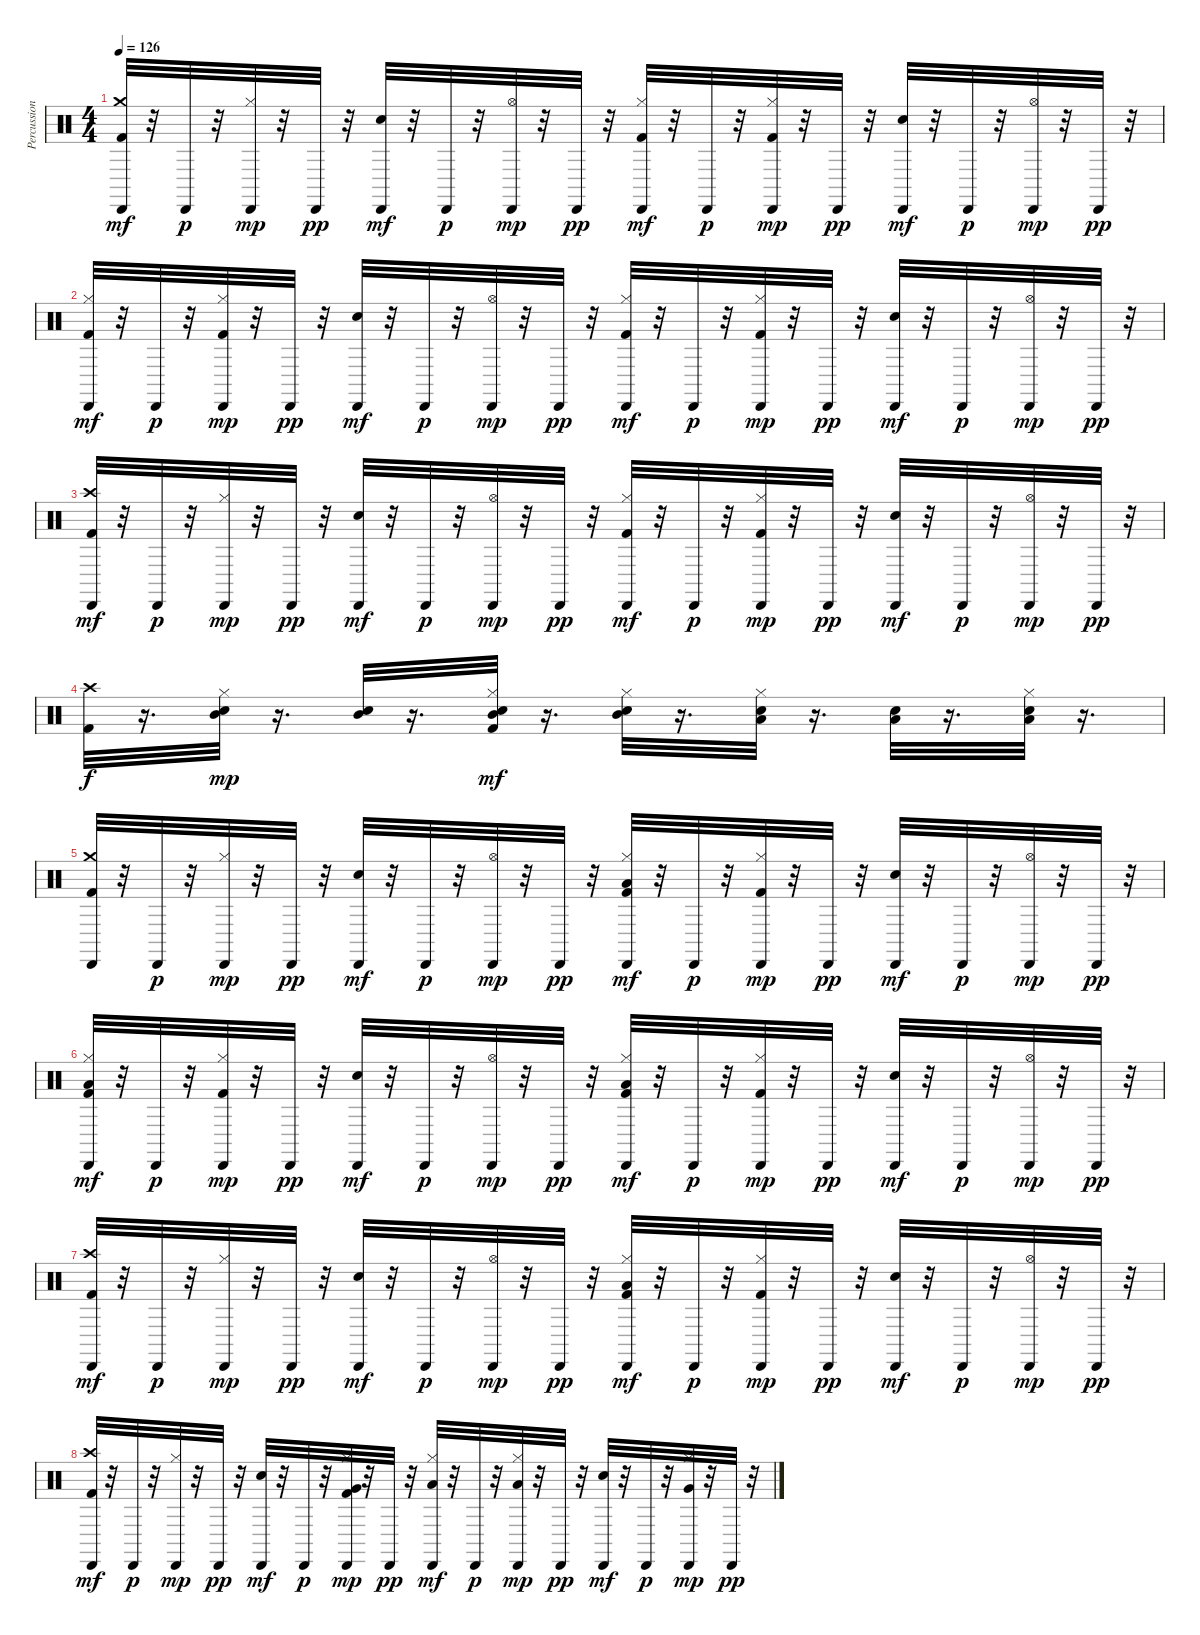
\track ("Percussions" "Percussion") {instrument percussion}
\staff {score}
\articulation defaults
\ts (4 4)
\tempo 126
\clef neutral
\ks c
("Kick (hit) 2" "Crash medium (hit)" "Cabasa (hit)").32{dy mf} r.32 "Cabasa (hit)".32{dy p} r.32 ("Hi-Hat (closed)" "Cabasa (hit)").32{dy mp} r.32 "Cabasa (hit)".32{dy pp} r.32 ("Electric Snare (hit)" "Cabasa (hit)").32{dy mf} r.32 "Cabasa (hit)".32{dy p} r.32 ("Hi-Hat (open)" "Cabasa (hit)").32{dy mp} r.32 "Cabasa (hit)".32{dy pp} r.32 ("Kick (hit) 2" "Hi-Hat (closed)" "Cabasa (hit)").32{dy mf} r.32 "Cabasa (hit)".32{dy p} r.32 ("Kick (hit) 2" "Hi-Hat (closed)" "Cabasa (hit)").32{dy mp} r.32 "Cabasa (hit)".32{dy pp} r.32 ("Electric Snare (hit)" "Cabasa (hit)").32{dy mf} r.32 "Cabasa (hit)".32{dy p} r.32 ("Hi-Hat (open)" "Cabasa (hit)").32{dy mp} r.32 "Cabasa (hit)".32{dy pp} r.32 |
("Kick (hit) 2" "Hi-Hat (closed)" "Cabasa (hit)").32{dy mf} r.32 "Cabasa (hit)".32{dy p} r.32 ("Kick (hit) 2" "Hi-Hat (closed)" "Cabasa (hit)").32{dy mp} r.32 "Cabasa (hit)".32{dy pp} r.32 ("Electric Snare (hit)" "Cabasa (hit)").32{dy mf} r.32 "Cabasa (hit)".32{dy p} r.32 ("Hi-Hat (open)" "Cabasa (hit)").32{dy mp} r.32 "Cabasa (hit)".32{dy pp} r.32 ("Kick (hit) 2" "Hi-Hat (closed)" "Cabasa (hit)").32{dy mf} r.32 "Cabasa (hit)".32{dy p} r.32 ("Kick (hit) 2" "Hi-Hat (closed)" "Cabasa (hit)").32{dy mp} r.32 "Cabasa (hit)".32{dy pp} r.32 ("Electric Snare (hit)" "Cabasa (hit)").32{dy mf} r.32 "Cabasa (hit)".32{dy p} r.32 ("Hi-Hat (open)" "Cabasa (hit)").32{dy mp} r.32 "Cabasa (hit)".32{dy pp} r.32 |
("Kick (hit) 2" "Crash high (hit)" "Cabasa (hit)").32{dy mf} r.32 "Cabasa (hit)".32{dy p} r.32 ("Hi-Hat (closed)" "Cabasa (hit)").32{dy mp} r.32 "Cabasa (hit)".32{dy pp} r.32 ("Electric Snare (hit)" "Cabasa (hit)").32{dy mf} r.32 "Cabasa (hit)".32{dy p} r.32 ("Hi-Hat (open)" "Cabasa (hit)").32{dy mp} r.32 "Cabasa (hit)".32{dy pp} r.32 ("Kick (hit) 2" "Hi-Hat (closed)" "Cabasa (hit)").32{dy mf} r.32 "Cabasa (hit)".32{dy p} r.32 ("Kick (hit) 2" "Hi-Hat (closed)" "Cabasa (hit)").32{dy mp} r.32 "Cabasa (hit)".32{dy pp} r.32 ("Electric Snare (hit)" "Cabasa (hit)").32{dy mf} r.32 "Cabasa (hit)".32{dy p} r.32 ("Hi-Hat (open)" "Cabasa (hit)").32{dy mp} r.32 "Cabasa (hit)".32{dy pp} r.32 |
("Kick (hit) 2" "Crash high (hit)").32{dy f} r.16{d} ("Electric Snare (hit)" "Hi-Hat (closed)" "Mid Tom (hit)").32{dy mp} r.16{d} ("Electric Snare (hit)" "Mid Tom (hit)").32 r.16{d} ("Kick (hit) 2" "Electric Snare (hit)" "Hi-Hat (closed)" "Mid Tom (hit)").32{dy mf} r.16{d} ("Electric Snare (hit)" "Hi-Hat (closed)" "Mid Tom (hit)").32 r.16{d} ("Electric Snare (hit)" "Hi-Hat (closed)" "Low Tom (hit)").32 r.16{d} ("Electric Snare (hit)" "Low Tom (hit)").32 r.16{d} ("Electric Snare (hit)" "Hi-Hat (closed)" "Low Tom (hit)").32 r.16{d} |
("Kick (hit) 2" "Crash medium (hit)" "Cabasa (hit)").32 r.32 "Cabasa (hit)".32{dy p} r.32 ("Hi-Hat (closed)" "Cabasa (hit)").32{dy mp} r.32 "Cabasa (hit)".32{dy pp} r.32 ("Electric Snare (hit)" "Cabasa (hit)").32{dy mf} r.32 "Cabasa (hit)".32{dy p} r.32 ("Hi-Hat (open)" "Cabasa (hit)").32{dy mp} r.32 "Cabasa (hit)".32{dy pp} r.32 ("Kick (hit) 2" "Hi-Hat (closed)" "Low Tom (hit)" "Cabasa (hit)").32{dy mf} r.32 "Cabasa (hit)".32{dy p} r.32 ("Kick (hit) 2" "Hi-Hat (closed)" "Cabasa (hit)").32{dy mp} r.32 "Cabasa (hit)".32{dy pp} r.32 ("Electric Snare (hit)" "Cabasa (hit)").32{dy mf} r.32 "Cabasa (hit)".32{dy p} r.32 ("Hi-Hat (open)" "Cabasa (hit)").32{dy mp} r.32 "Cabasa (hit)".32{dy pp} r.32 |
("Kick (hit) 2" "Hi-Hat (closed)" "Low Tom (hit)" "Cabasa (hit)").32{dy mf} r.32 "Cabasa (hit)".32{dy p} r.32 ("Kick (hit) 2" "Hi-Hat (closed)" "Cabasa (hit)").32{dy mp} r.32 "Cabasa (hit)".32{dy pp} r.32 ("Electric Snare (hit)" "Cabasa (hit)").32{dy mf} r.32 "Cabasa (hit)".32{dy p} r.32 ("Hi-Hat (open)" "Cabasa (hit)").32{dy mp} r.32 "Cabasa (hit)".32{dy pp} r.32 ("Kick (hit) 2" "Hi-Hat (closed)" "Low Tom (hit)" "Cabasa (hit)").32{dy mf} r.32 "Cabasa (hit)".32{dy p} r.32 ("Kick (hit) 2" "Hi-Hat (closed)" "Cabasa (hit)").32{dy mp} r.32 "Cabasa (hit)".32{dy pp} r.32 ("Electric Snare (hit)" "Cabasa (hit)").32{dy mf} r.32 "Cabasa (hit)".32{dy p} r.32 ("Hi-Hat (open)" "Cabasa (hit)").32{dy mp} r.32 "Cabasa (hit)".32{dy pp} r.32 |
("Kick (hit) 2" "Crash high (hit)" "Cabasa (hit)").32{dy mf} r.32 "Cabasa (hit)".32{dy p} r.32 ("Hi-Hat (closed)" "Cabasa (hit)").32{dy mp} r.32 "Cabasa (hit)".32{dy pp} r.32 ("Electric Snare (hit)" "Cabasa (hit)").32{dy mf} r.32 "Cabasa (hit)".32{dy p} r.32 ("Hi-Hat (open)" "Cabasa (hit)").32{dy mp} r.32 "Cabasa (hit)".32{dy pp} r.32 ("Kick (hit) 2" "Hi-Hat (closed)" "Low Tom (hit)" "Cabasa (hit)").32{dy mf} r.32 "Cabasa (hit)".32{dy p} r.32 ("Kick (hit) 2" "Hi-Hat (closed)" "Cabasa (hit)").32{dy mp} r.32 "Cabasa (hit)".32{dy pp} r.32 ("Electric Snare (hit)" "Cabasa (hit)").32{dy mf} r.32 "Cabasa (hit)".32{dy p} r.32 ("Hi-Hat (open)" "Cabasa (hit)").32{dy mp} r.32 "Cabasa (hit)".32{dy pp} r.32 |
("Kick (hit) 2" "Crash high (hit)" "Cabasa (hit)").32{dy mf} r.32 "Cabasa (hit)".32{dy p} r.32 ("Hi-Hat (closed)" "Cabasa (hit)").32{dy mp} r.32 "Cabasa (hit)".32{dy pp} r.32 ("Electric Snare (hit)" "Cabasa (hit)").32{dy mf} r.32 "Cabasa (hit)".32{dy p} r.32 ("Kick (hit) 2" "Hi-Hat (closed)" "Very Low Tom (hit)" "Cabasa (hit)").32{dy mp} r.32 "Cabasa (hit)".32{dy pp} r.32 ("Hi-Hat (closed)" "Low Tom (hit)" "Cabasa (hit)").32{dy mf} r.32 "Cabasa (hit)".32{dy p} r.32 ("Hi-Hat (closed)" "Low Tom (hit)" "Cabasa (hit)").32{dy mp} r.32 "Cabasa (hit)".32{dy pp} r.32 ("Electric Snare (hit)" "Cabasa (hit)").32{dy mf} r.32 "Cabasa (hit)".32{dy p} r.32 ("Hi-Hat (closed)" "Very Low Tom (hit)" "Cabasa (hit)").32{dy mp} r.32 "Cabasa (hit)".32{dy pp} r.32
